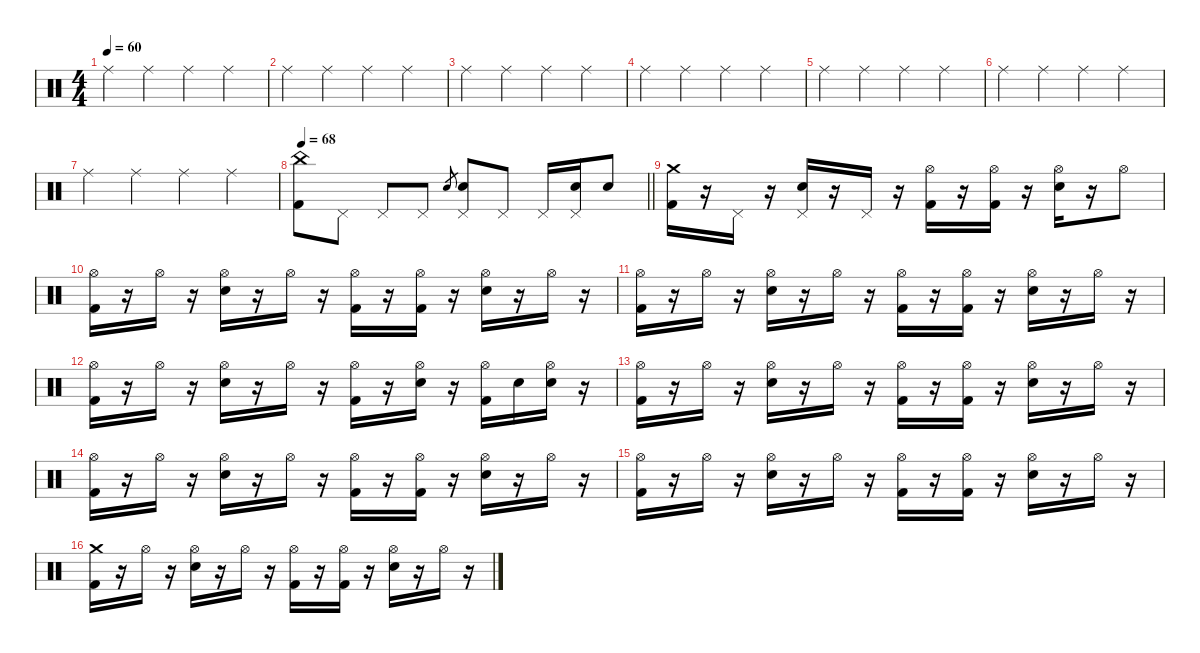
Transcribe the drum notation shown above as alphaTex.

\defaultSystemsLayout 4
\hideDynamics
\bracketExtendMode nobrackets
\singleTrackTrackNamePolicy hidden
\multiTrackTrackNamePolicy hidden
\firstSystemTrackNameMode fullname
\otherSystemsTrackNameOrientation horizontal
\track ("Percussions" "drm.") {defaultSystemsLayout 4 instrument percussion}
\staff {score}
\articulation defaults
\ts (4 4)
\tempo 60
\clef neutral
\ks c "Ride (middle)".4{dy f beam Down} "Ride (middle)".4{beam Down} "Ride (middle)".4{beam Down} "Ride (middle)".4{beam Down}
|
"Ride (middle)".4{beam Down} "Ride (middle)".4{beam Down} "Ride (middle)".4{beam Down} "Ride (middle)".4{beam Down} |
"Ride (middle)".4{beam Down} "Ride (middle)".4{beam Down} "Ride (middle)".4{beam Down} "Ride (middle)".4{beam Down} |
"Ride (middle)".4{beam Down} "Ride (middle)".4{beam Down} "Ride (middle)".4{beam Down} "Ride (middle)".4{beam Down} |
"Ride (middle)".4{beam Down} "Ride (middle)".4{beam Down} "Ride (middle)".4{beam Down} "Ride (middle)".4{beam Down} |
"Ride (middle)".4{beam Down} "Ride (middle)".4{beam Down} "Ride (middle)".4{beam Down} "Ride (middle)".4{beam Down} |
"Ride (middle)".4{beam Down} "Ride (middle)".4{beam Down} "Ride (middle)".4{beam Down} "Ride (middle)".4{beam Down} |
\tempo 68
\barLineRight lightlight
("China (hit)" "Kick (hit) 2").8{dy mp beam Down} "Pedal Hi-Hat (hit)".8{dy mf beam Down} "Pedal Hi-Hat (hit)".8{beam Up} "Pedal Hi-Hat (hit)".8{beam Up} "Electric Snare (hit)".8{gr beam Up} ("Pedal Hi-Hat (hit)" "Snare (hit) 2").8{beam Up} "Pedal Hi-Hat (hit)".8{beam Up} "Pedal Hi-Hat (hit)".16{beam Up} ("Pedal Hi-Hat (hit)" "Snare (hit) 2").16{beam Up} "Snare (hit) 2".8{dy fff beam Up} |
("Crash medium (hit)" "Kick (hit) 2").16{dy f beam Down} r.16{beam Down} "Pedal Hi-Hat (hit)".16{beam Down} r.16{beam Down} ("Pedal Hi-Hat (hit)" "Snare (hit) 2").16{beam Up} r.16{beam Up} "Pedal Hi-Hat (hit)".16{beam Up} r.16{beam Up} ("Hi-Hat (open)" "Kick (hit) 2").16{beam Down} r.16{beam Down} ("Hi-Hat (open)" "Kick (hit) 2").16{beam Down} r.16{beam Down} ("Hi-Hat (open)" "Snare (hit) 2").16{beam Down} r.16{beam Down} "Hi-Hat (open)".8{beam Down} |
("Hi-Hat (open)" "Kick (hit) 2").16{beam Down} r.16{beam Down} "Hi-Hat (open)".16{beam Down} r.16{beam Down} ("Hi-Hat (open)" "Snare (hit) 2").16{beam Down} r.16{beam Down} "Hi-Hat (open)".16{beam Down} r.16{beam Down} ("Hi-Hat (open)" "Kick (hit) 2").16{beam Down} r.16{beam Down} ("Hi-Hat (open)" "Kick (hit) 2").16{beam Down} r.16{beam Down} ("Hi-Hat (open)" "Snare (hit) 2").16{beam Down} r.16{beam Down} "Hi-Hat (open)".16{beam Down} r.16{beam Down} |
("Hi-Hat (open)" "Kick (hit) 2").16{beam Down} r.16{beam Down} "Hi-Hat (open)".16{beam Down} r.16{beam Down} ("Hi-Hat (open)" "Snare (hit) 2").16{beam Down} r.16{beam Down} "Hi-Hat (open)".16{beam Down} r.16{beam Down} ("Hi-Hat (open)" "Kick (hit) 2").16{beam Down} r.16{beam Down} ("Hi-Hat (open)" "Kick (hit) 2").16{beam Down} r.16{beam Down} ("Hi-Hat (open)" "Snare (hit) 2").16{beam Down} r.16{beam Down} "Hi-Hat (open)".16{beam Down} r.16{beam Down} |
("Hi-Hat (open)" "Kick (hit) 2").16{beam Down} r.16{beam Down} "Hi-Hat (open)".16{beam Down} r.16{beam Down} ("Hi-Hat (open)" "Snare (hit) 2").16{beam Down} r.16{beam Down} "Hi-Hat (open)".16{beam Down} r.16{beam Down} ("Hi-Hat (open)" "Kick (hit) 2").16{beam Down} r.16{beam Down} ("Hi-Hat (open)" "Snare (hit) 2").16{dy fff beam Down} r.16{beam Down} ("Hi-Hat (open)" "Kick (hit) 2").16{dy f beam Down} "Snare (hit) 2".16{dy fff beam Down} ("Hi-Hat (open)" "Snare (hit) 2").16{beam Down} r.16{beam Down} |
("Hi-Hat (open)" "Kick (hit) 2").16{dy f beam Down} r.16{beam Down} "Hi-Hat (open)".16{beam Down} r.16{beam Down} ("Hi-Hat (open)" "Snare (hit) 2").16{beam Down} r.16{beam Down} "Hi-Hat (open)".16{beam Down} r.16{beam Down} ("Hi-Hat (open)" "Kick (hit) 2").16{beam Down} r.16{beam Down} ("Hi-Hat (open)" "Kick (hit) 2").16{beam Down} r.16{beam Down} ("Hi-Hat (open)" "Snare (hit) 2").16{beam Down} r.16{beam Down} "Hi-Hat (open)".16{beam Down} r.16{beam Down} |
("Hi-Hat (open)" "Kick (hit) 2").16{beam Down} r.16{beam Down} "Hi-Hat (open)".16{beam Down} r.16{beam Down} ("Hi-Hat (open)" "Snare (hit) 2").16{beam Down} r.16{beam Down} "Hi-Hat (open)".16{beam Down} r.16{beam Down} ("Hi-Hat (open)" "Kick (hit) 2").16{beam Down} r.16{beam Down} ("Hi-Hat (open)" "Kick (hit) 2").16{beam Down} r.16{beam Down} ("Hi-Hat (open)" "Snare (hit) 2").16{beam Down} r.16{beam Down} "Hi-Hat (open)".16{beam Down} r.16{beam Down} |
("Hi-Hat (open)" "Kick (hit) 2").16{beam Down} r.16{beam Down} "Hi-Hat (open)".16{beam Down} r.16{beam Down} ("Hi-Hat (open)" "Snare (hit) 2").16{beam Down} r.16{beam Down} "Hi-Hat (open)".16{beam Down} r.16{beam Down} ("Hi-Hat (open)" "Kick (hit) 2").16{beam Down} r.16{beam Down} ("Hi-Hat (open)" "Kick (hit) 2").16{beam Down} r.16{beam Down} ("Hi-Hat (open)" "Snare (hit) 2").16{beam Down} r.16{beam Down} "Hi-Hat (open)".16{beam Down} r.16{beam Down} |
("Crash medium (hit)" "Kick (hit) 2").16{beam Down} r.16{beam Down} "Hi-Hat (open)".16{beam Down} r.16{beam Down} ("Hi-Hat (open)" "Snare (hit) 2").16{beam Down} r.16{beam Down} "Hi-Hat (open)".16{beam Down} r.16{beam Down} ("Hi-Hat (open)" "Kick (hit) 2").16{beam Down} r.16{beam Down} ("Hi-Hat (open)" "Kick (hit) 2").16{beam Down} r.16{beam Down} ("Hi-Hat (open)" "Snare (hit) 2").16{beam Down} r.16{beam Down} "Hi-Hat (open)".16{beam Down} r.16{beam Down}
